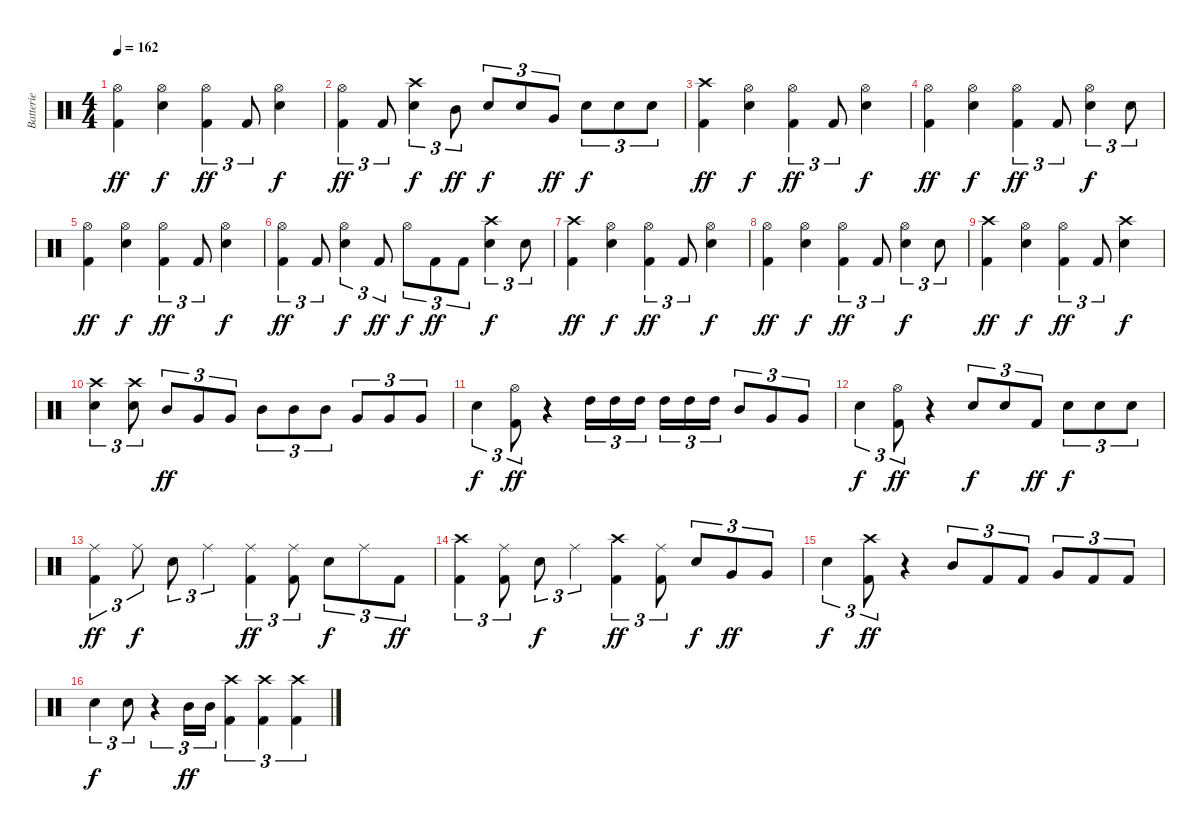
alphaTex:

\track ("Batterie" "Batterie") {instrument percussion}
\staff {score}
\articulation defaults
\ts (4 4)
\tempo 162
\clef neutral
\ks c
("Hi-Hat (open)" "Kick (hit) 2").4{dy ff} ("Hi-Hat (open)" "Snare (hit) 2").4{dy f} ("Hi-Hat (open)" "Kick (hit) 2").4{tu (3 2) dy ff} "Kick (hit) 2".8{tu (3 2)} ("Hi-Hat (open)" "Snare (hit) 2").4{dy f} |
("Hi-Hat (open)" "Kick (hit) 2").4{tu (3 2) dy ff} "Kick (hit) 2".8{tu (3 2)} ("Crash high (hit)" "Snare (hit) 2").4{tu (3 2) dy f} "Mid Tom (hit)".8{tu (3 2) dy ff} "Snare (hit) 2".8{tu (3 2) dy f} "Snare (hit) 2".8{tu (3 2)} "Very Low Tom (hit)".8{tu (3 2) dy ff} "Snare (hit) 2".8{tu (3 2) dy f} "Snare (hit) 2".8{tu (3 2)} "Snare (hit) 2".8{tu (3 2)} |
("Crash high (hit)" "Kick (hit) 2").4{dy ff} ("Hi-Hat (open)" "Snare (hit) 2").4{dy f} ("Hi-Hat (open)" "Kick (hit) 2").4{tu (3 2) dy ff} "Kick (hit) 2".8{tu (3 2)} ("Hi-Hat (open)" "Snare (hit) 2").4{dy f} |
("Hi-Hat (open)" "Kick (hit) 2").4{dy ff} ("Hi-Hat (open)" "Snare (hit) 2").4{dy f} ("Hi-Hat (open)" "Kick (hit) 2").4{tu (3 2) dy ff} "Kick (hit) 2".8{tu (3 2)} ("Hi-Hat (open)" "Snare (hit) 2").4{tu (3 2) dy f} "Snare (hit) 2".8{tu (3 2)} |
("Hi-Hat (open)" "Kick (hit) 2").4{dy ff} ("Hi-Hat (open)" "Snare (hit) 2").4{dy f} ("Hi-Hat (open)" "Kick (hit) 2").4{tu (3 2) dy ff} "Kick (hit) 2".8{tu (3 2)} ("Hi-Hat (open)" "Snare (hit) 2").4{dy f} |
("Hi-Hat (open)" "Kick (hit) 2").4{tu (3 2) dy ff} "Kick (hit) 2".8{tu (3 2)} ("Hi-Hat (open)" "Snare (hit) 2").4{tu (3 2) dy f} "Kick (hit) 2".8{tu (3 2) dy ff} "Hi-Hat (open)".8{tu (3 2) dy f} "Kick (hit) 2".8{tu (3 2) dy ff} "Kick (hit) 2".8{tu (3 2)} ("Crash high (hit)" "Snare (hit) 2").4{tu (3 2) dy f} "Snare (hit) 2".8{tu (3 2)} |
("Crash high (hit)" "Kick (hit) 2").4{dy ff} ("Hi-Hat (open)" "Snare (hit) 2").4{dy f} ("Hi-Hat (open)" "Kick (hit) 2").4{tu (3 2) dy ff} "Kick (hit) 2".8{tu (3 2)} ("Hi-Hat (open)" "Snare (hit) 2").4{dy f} |
("Hi-Hat (open)" "Kick (hit) 2").4{dy ff} ("Hi-Hat (open)" "Snare (hit) 2").4{dy f} ("Hi-Hat (open)" "Kick (hit) 2").4{tu (3 2) dy ff} "Kick (hit) 2".8{tu (3 2)} ("Hi-Hat (open)" "Snare (hit) 2").4{tu (3 2) dy f} "Snare (hit) 2".8{tu (3 2)} |
("Crash high (hit)" "Kick (hit) 2").4{dy ff} ("Hi-Hat (open)" "Snare (hit) 2").4{dy f} ("Hi-Hat (open)" "Kick (hit) 2").4{tu (3 2) dy ff} "Kick (hit) 2".8{tu (3 2)} ("Crash high (hit)" "Snare (hit) 2").4{dy f} |
("Crash high (hit)" "Snare (hit) 2").4{tu (3 2)} ("Crash high (hit)" "Snare (hit) 2").8{tu (3 2)} "Mid Tom (hit)".8{tu (3 2) dy ff} "Very Low Tom (hit)".8{tu (3 2)} "Very Low Tom (hit)".8{tu (3 2)} "Mid Tom (hit)".8{tu (3 2)} "Mid Tom (hit)".8{tu (3 2)} "Mid Tom (hit)".8{tu (3 2)} "Very Low Tom (hit)".8{tu (3 2)} "Very Low Tom (hit)".8{tu (3 2)} "Very Low Tom (hit)".8{tu (3 2)} |
"Snare (hit) 2".4{tu (3 2) dy f} ("Hi-Hat (open)" "Kick (hit) 2").8{tu (3 2) dy ff} r.4 "High Tom (hit)".16{tu (3 2)} "High Tom (hit)".16{tu (3 2)} "High Tom (hit)".16{tu (3 2)} "High Tom (hit)".16{tu (3 2)} "High Tom (hit)".16{tu (3 2)} "High Tom (hit)".16{tu (3 2)} "Mid Tom (hit)".8{tu (3 2)} "Very Low Tom (hit)".8{tu (3 2)} "Very Low Tom (hit)".8{tu (3 2)} |
"Snare (hit) 2".4{tu (3 2) dy f} ("Hi-Hat (open)" "Kick (hit) 2").8{tu (3 2) dy ff} r.4 "Snare (hit) 2".8{tu (3 2) dy f} "Snare (hit) 2".8{tu (3 2)} "Kick (hit) 2".8{tu (3 2) dy ff} "Snare (hit) 2".8{tu (3 2) dy f} "Snare (hit) 2".8{tu (3 2)} "Snare (hit) 2".8{tu (3 2)} |
("Ride (middle)" "Kick (hit) 2").4{tu (3 2) dy ff} "Ride (middle)".8{tu (3 2) dy f} "Snare (hit) 2".8{tu (3 2)} "Ride (middle)".4{tu (3 2)} ("Ride (middle)" "Kick (hit) 2").4{tu (3 2) dy ff} ("Ride (middle)" "Kick (hit) 2").8{tu (3 2)} "Snare (hit) 2".8{tu (3 2) dy f} "Ride (middle)".8{tu (3 2)} "Kick (hit) 2".8{tu (3 2) dy ff} |
("Crash high (hit)" "Kick (hit) 2").4{tu (3 2)} ("Ride (middle)" "Kick (hit) 2").8{tu (3 2)} "Snare (hit) 2".8{tu (3 2) dy f} "Ride (middle)".4{tu (3 2)} ("Crash high (hit)" "Kick (hit) 2").4{tu (3 2) dy ff} ("Ride (middle)" "Kick (hit) 2").8{tu (3 2)} "Snare (hit) 2".8{tu (3 2) dy f} "Very Low Tom (hit)".8{tu (3 2) dy ff} "Very Low Tom (hit)".8{tu (3 2)} |
"Snare (hit) 2".4{tu (3 2) dy f} ("Crash high (hit)" "Kick (hit) 2").8{tu (3 2) dy ff} r.4 "Mid Tom (hit)".8{tu (3 2)} "Kick (hit) 2".8{tu (3 2)} "Kick (hit) 2".8{tu (3 2)} "Very Low Tom (hit)".8{tu (3 2)} "Kick (hit) 2".8{tu (3 2)} "Kick (hit) 2".8{tu (3 2)} |
"Snare (hit) 2".4{tu (3 2) dy f} "Snare (hit) 2".8{tu (3 2)} r.4{tu (3 2)} "Mid Tom (hit)".16{tu (3 2) dy ff} "Mid Tom (hit)".16{tu (3 2)} ("Crash high (hit)" "Kick (hit) 2").4{tu (3 2)} ("Crash high (hit)" "Kick (hit) 2").4{tu (3 2)} ("Crash high (hit)" "Kick (hit) 2").4{tu (3 2)}
